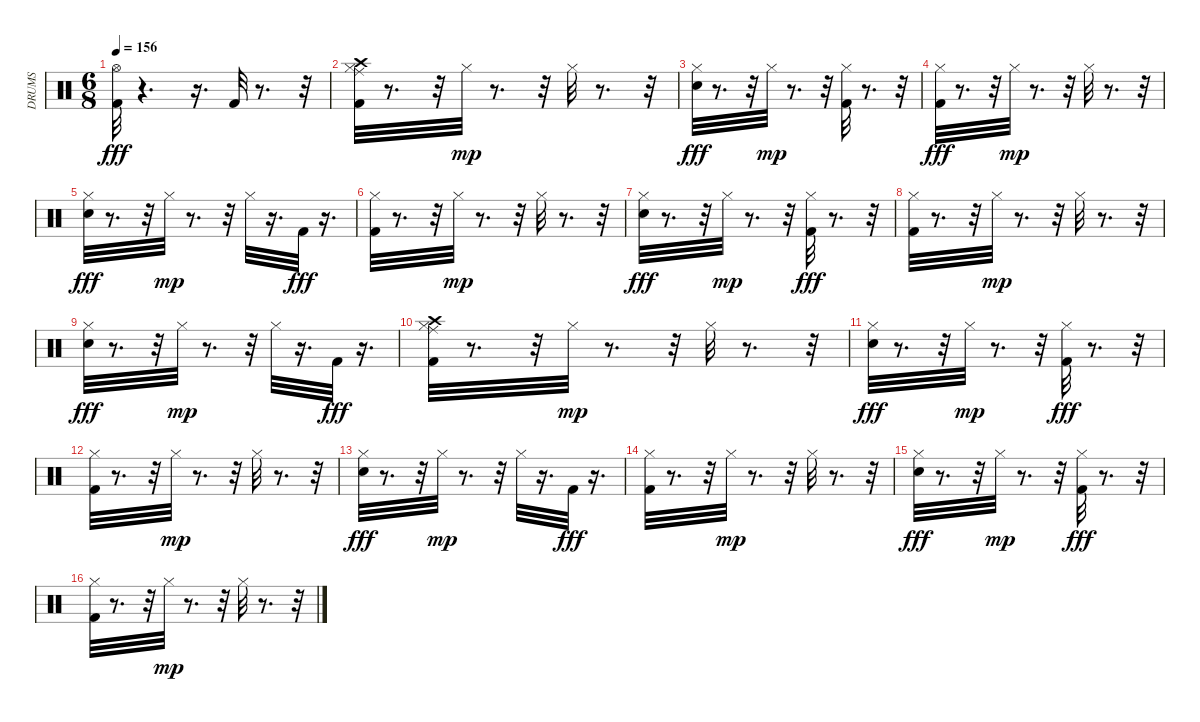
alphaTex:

\track ("DRUMS" "DRUMS") {instrument percussion}
\staff {score}
\articulation defaults
\ts (6 8)
\tempo 156
\clef neutral
\ks c
("Kick (hit) 2" "Hi-Hat (open)").32{dy fff} r.4{d} r.16{d} "Kick (hit) 2".32 r.8{d} r.32 |
("Crash high (hit)" "Ride (middle)" "Hi-Hat (closed)" "Kick (hit) 2").32 r.8{d} r.32 "Hi-Hat (closed)".32{dy mp} r.8{d} r.32 "Hi-Hat (closed)".32 r.8{d} r.32 |
("Hi-Hat (closed)" "Snare (hit) 2").32{dy fff} r.8{d} r.32 "Hi-Hat (closed)".32{dy mp} r.8{d} r.32 ("Kick (hit) 2" "Hi-Hat (closed)").32 r.8{d} r.32 |
("Hi-Hat (closed)" "Kick (hit) 2").32{dy fff} r.8{d} r.32 "Hi-Hat (closed)".32{dy mp} r.8{d} r.32 "Hi-Hat (closed)".32 r.8{d} r.32 |
("Hi-Hat (closed)" "Snare (hit) 2").32{dy fff} r.8{d} r.32 "Hi-Hat (closed)".32{dy mp} r.8{d} r.32 "Hi-Hat (closed)".32 r.16{d} "Kick (hit) 2".32{dy fff} r.16{d} |
("Hi-Hat (closed)" "Kick (hit) 2").32 r.8{d} r.32 "Hi-Hat (closed)".32{dy mp} r.8{d} r.32 "Hi-Hat (closed)".32 r.8{d} r.32 |
("Hi-Hat (closed)" "Snare (hit) 2").32{dy fff} r.8{d} r.32 "Hi-Hat (closed)".32{dy mp} r.8{d} r.32 ("Hi-Hat (closed)" "Kick (hit) 2").32{dy fff} r.8{d} r.32 |
("Hi-Hat (closed)" "Kick (hit) 2").32 r.8{d} r.32 "Hi-Hat (closed)".32{dy mp} r.8{d} r.32 "Hi-Hat (closed)".32 r.8{d} r.32 |
("Hi-Hat (closed)" "Snare (hit) 2").32{dy fff} r.8{d} r.32 "Hi-Hat (closed)".32{dy mp} r.8{d} r.32 "Hi-Hat (closed)".32 r.16{d} "Kick (hit) 2".32{dy fff} r.16{d} |
("Crash high (hit)" "Ride (middle)" "Hi-Hat (closed)" "Kick (hit) 2").32 r.8{d} r.32 "Hi-Hat (closed)".32{dy mp} r.8{d} r.32 "Hi-Hat (closed)".32 r.8{d} r.32 |
("Hi-Hat (closed)" "Snare (hit) 2").32{dy fff} r.8{d} r.32 "Hi-Hat (closed)".32{dy mp} r.8{d} r.32 ("Hi-Hat (closed)" "Kick (hit) 2").32{dy fff} r.8{d} r.32 |
("Hi-Hat (closed)" "Kick (hit) 2").32 r.8{d} r.32 "Hi-Hat (closed)".32{dy mp} r.8{d} r.32 "Hi-Hat (closed)".32 r.8{d} r.32 |
("Snare (hit) 2" "Hi-Hat (closed)").32{dy fff} r.8{d} r.32 "Hi-Hat (closed)".32{dy mp} r.8{d} r.32 "Hi-Hat (closed)".32 r.16{d} "Kick (hit) 2".32{dy fff} r.16{d} |
("Hi-Hat (closed)" "Kick (hit) 2").32 r.8{d} r.32 "Hi-Hat (closed)".32{dy mp} r.8{d} r.32 "Hi-Hat (closed)".32 r.8{d} r.32 |
("Snare (hit) 2" "Hi-Hat (closed)").32{dy fff} r.8{d} r.32 "Hi-Hat (closed)".32{dy mp} r.8{d} r.32 ("Hi-Hat (closed)" "Kick (hit) 2").32{dy fff} r.8{d} r.32 |
("Hi-Hat (closed)" "Kick (hit) 2").32 r.8{d} r.32 "Hi-Hat (closed)".32{dy mp} r.8{d} r.32 "Hi-Hat (closed)".32 r.8{d} r.32
